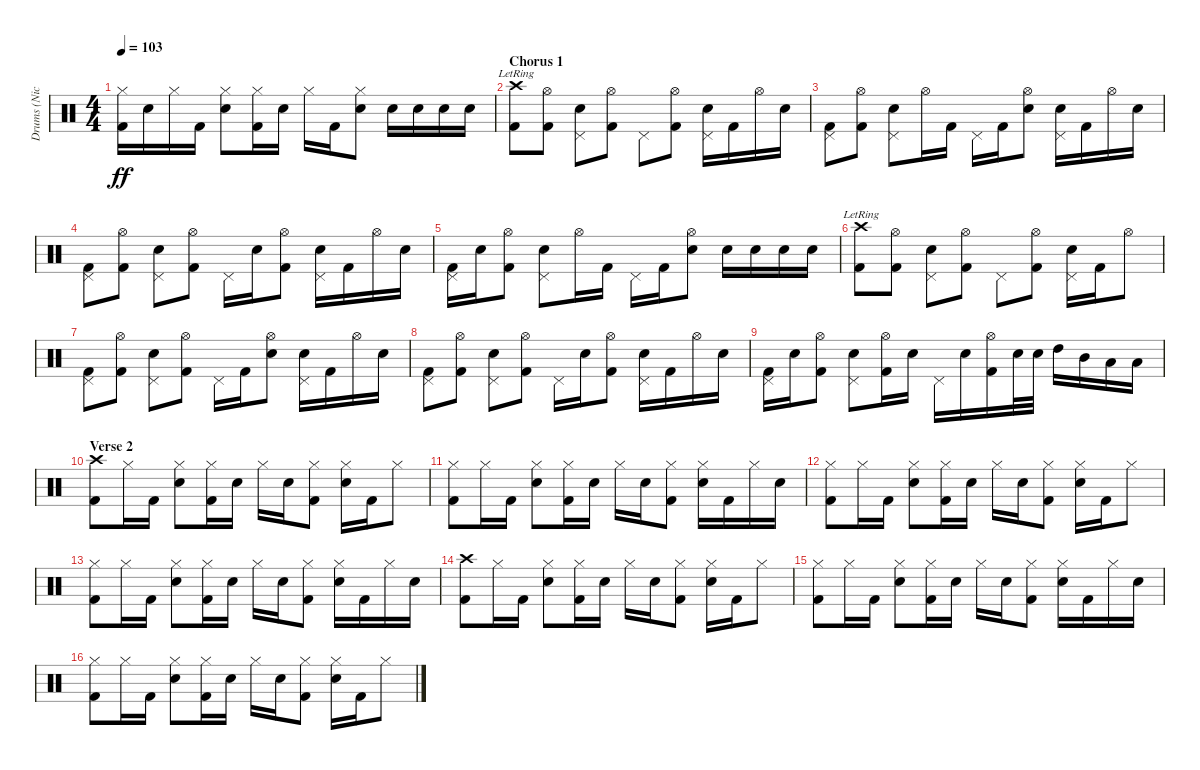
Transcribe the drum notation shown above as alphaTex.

\track ("Drums (Nick Oshiro)" "Drums (Nic") {instrument percussion}
\staff {score}
\articulation defaults
\ts (4 4)
\tempo 103
\clef neutral
\ks c
("Hi-Hat (closed)" "Kick (hit) 2").16{dy ff} "Snare (hit) 2".16 "Hi-Hat (closed)".16 "Kick (hit) 2".16 ("Hi-Hat (closed)" "Snare (hit) 2").8 ("Hi-Hat (closed)" "Kick (hit) 2").16 "Snare (hit) 2".16 "Hi-Hat (closed)".16 "Kick (hit) 2".16 ("Hi-Hat (closed)" "Snare (hit) 2").8 "Snare (hit) 2".16 "Snare (hit) 2".16 "Snare (hit) 2".16 "Snare (hit) 2".16 |
\section ("" "Chorus 1")
("Crash high (hit)"{lr} "Kick (hit) 2").8 ("Hi-Hat (open)" "Kick (hit) 2").8 ("Pedal Hi-Hat (hit)" "Snare (hit) 2").8 ("Hi-Hat (open)" "Kick (hit) 2").8 "Pedal Hi-Hat (hit)".8 ("Hi-Hat (open)" "Kick (hit) 2").8 ("Pedal Hi-Hat (hit)" "Snare (hit) 2").16 "Kick (hit) 2".16 "Hi-Hat (open)".16 "Snare (hit) 2".16 |
("Pedal Hi-Hat (hit)" "Kick (hit) 2").8 ("Hi-Hat (open)" "Kick (hit) 2").8 ("Pedal Hi-Hat (hit)" "Snare (hit) 2").8 "Hi-Hat (open)".16 "Kick (hit) 2".16 "Pedal Hi-Hat (hit)".16 "Kick (hit) 2".16 ("Hi-Hat (open)" "Snare (hit) 2").8 ("Pedal Hi-Hat (hit)" "Snare (hit) 2").16 "Kick (hit) 2".16 "Hi-Hat (open)".16 "Snare (hit) 2".16 |
("Pedal Hi-Hat (hit)" "Kick (hit) 2").8 ("Hi-Hat (open)" "Kick (hit) 2").8 ("Pedal Hi-Hat (hit)" "Snare (hit) 2").8 ("Hi-Hat (open)" "Kick (hit) 2").8 "Pedal Hi-Hat (hit)".16 "Snare (hit) 2".16 ("Hi-Hat (open)" "Kick (hit) 2").8 ("Pedal Hi-Hat (hit)" "Snare (hit) 2").16 "Kick (hit) 2".16 "Hi-Hat (open)".16 "Snare (hit) 2".16 |
("Pedal Hi-Hat (hit)" "Kick (hit) 2").16 "Snare (hit) 2".16 ("Hi-Hat (open)" "Kick (hit) 2").8 ("Pedal Hi-Hat (hit)" "Snare (hit) 2").8 "Hi-Hat (open)".16 "Kick (hit) 2".16 "Pedal Hi-Hat (hit)".16 "Kick (hit) 2".16 ("Hi-Hat (open)" "Snare (hit) 2").8 "Snare (hit) 2".16 "Snare (hit) 2".16 "Snare (hit) 2".16 "Snare (hit) 2".16 |
("Crash high (hit)"{lr} "Kick (hit) 2").8 ("Hi-Hat (open)" "Kick (hit) 2").8 ("Pedal Hi-Hat (hit)" "Snare (hit) 2").8 ("Hi-Hat (open)" "Kick (hit) 2").8 "Pedal Hi-Hat (hit)".8 ("Hi-Hat (open)" "Kick (hit) 2").8 ("Pedal Hi-Hat (hit)" "Snare (hit) 2").16 "Kick (hit) 2".16 "Hi-Hat (open)".8 |
("Pedal Hi-Hat (hit)" "Kick (hit) 2").8 ("Hi-Hat (open)" "Kick (hit) 2").8 ("Pedal Hi-Hat (hit)" "Snare (hit) 2").8 ("Hi-Hat (open)" "Kick (hit) 2").8 "Pedal Hi-Hat (hit)".16 "Kick (hit) 2".16 ("Hi-Hat (open)" "Snare (hit) 2").8 ("Pedal Hi-Hat (hit)" "Snare (hit) 2").16 "Kick (hit) 2".16 "Hi-Hat (open)".16 "Snare (hit) 2".16 |
("Pedal Hi-Hat (hit)" "Kick (hit) 2").8 ("Hi-Hat (open)" "Kick (hit) 2").8 ("Pedal Hi-Hat (hit)" "Snare (hit) 2").8 ("Hi-Hat (open)" "Kick (hit) 2").8 "Pedal Hi-Hat (hit)".16 "Snare (hit) 2".16 ("Hi-Hat (open)" "Kick (hit) 2").8 ("Pedal Hi-Hat (hit)" "Snare (hit) 2").16 "Kick (hit) 2".16 "Hi-Hat (open)".16 "Snare (hit) 2".16 |
("Pedal Hi-Hat (hit)" "Kick (hit) 2").16 "Snare (hit) 2".16 ("Hi-Hat (open)" "Kick (hit) 2").8 ("Pedal Hi-Hat (hit)" "Snare (hit) 2").8 ("Hi-Hat (open)" "Kick (hit) 2").16 "Snare (hit) 2".16 "Pedal Hi-Hat (hit)".16 "Snare (hit) 2".16 ("Hi-Hat (open)" "Kick (hit) 2").16 "Snare (hit) 2".32 "Snare (hit) 2".32 "High Tom (hit)".16 "Mid Tom (hit)".16 "Low Tom (hit)".16 "Low Tom (hit)".16 |
\section ("" "Verse 2")
("Crash high (hit)" "Kick (hit) 2").8 "Hi-Hat (closed)".16 "Kick (hit) 2".16 ("Hi-Hat (closed)" "Snare (hit) 2").8 ("Hi-Hat (closed)" "Kick (hit) 2").16 "Snare (hit) 2".16 "Hi-Hat (closed)".16 "Snare (hit) 2".16 ("Hi-Hat (closed)" "Kick (hit) 2").8 ("Hi-Hat (closed)" "Snare (hit) 2").16 "Kick (hit) 2".16 "Hi-Hat (closed)".8 |
("Hi-Hat (closed)" "Kick (hit) 2").8 "Hi-Hat (closed)".16 "Kick (hit) 2".16 ("Hi-Hat (closed)" "Snare (hit) 2").8 ("Hi-Hat (closed)" "Kick (hit) 2").16 "Snare (hit) 2".16 "Hi-Hat (closed)".16 "Snare (hit) 2".16 ("Hi-Hat (closed)" "Kick (hit) 2").8 ("Hi-Hat (closed)" "Snare (hit) 2").16 "Kick (hit) 2".16 "Hi-Hat (closed)".16 "Snare (hit) 2".16 |
("Hi-Hat (closed)" "Kick (hit) 2").8 "Hi-Hat (closed)".16 "Kick (hit) 2".16 ("Hi-Hat (closed)" "Snare (hit) 2").8 ("Hi-Hat (closed)" "Kick (hit) 2").16 "Snare (hit) 2".16 "Hi-Hat (closed)".16 "Snare (hit) 2".16 ("Hi-Hat (closed)" "Kick (hit) 2").8 ("Hi-Hat (closed)" "Snare (hit) 2").16 "Kick (hit) 2".16 "Hi-Hat (closed)".8 |
("Hi-Hat (closed)" "Kick (hit) 2").8 "Hi-Hat (closed)".16 "Kick (hit) 2".16 ("Hi-Hat (closed)" "Snare (hit) 2").8 ("Hi-Hat (closed)" "Kick (hit) 2").16 "Snare (hit) 2".16 "Hi-Hat (closed)".16 "Snare (hit) 2".16 ("Hi-Hat (closed)" "Kick (hit) 2").8 ("Hi-Hat (closed)" "Snare (hit) 2").16 "Kick (hit) 2".16 "Hi-Hat (closed)".16 "Snare (hit) 2".16 |
("Crash high (hit)" "Kick (hit) 2").8 "Hi-Hat (closed)".16 "Kick (hit) 2".16 ("Hi-Hat (closed)" "Snare (hit) 2").8 ("Hi-Hat (closed)" "Kick (hit) 2").16 "Snare (hit) 2".16 "Hi-Hat (closed)".16 "Snare (hit) 2".16 ("Hi-Hat (closed)" "Kick (hit) 2").8 ("Hi-Hat (closed)" "Snare (hit) 2").16 "Kick (hit) 2".16 "Hi-Hat (closed)".8 |
("Hi-Hat (closed)" "Kick (hit) 2").8 "Hi-Hat (closed)".16 "Kick (hit) 2".16 ("Hi-Hat (closed)" "Snare (hit) 2").8 ("Hi-Hat (closed)" "Kick (hit) 2").16 "Snare (hit) 2".16 "Hi-Hat (closed)".16 "Snare (hit) 2".16 ("Hi-Hat (closed)" "Kick (hit) 2").8 ("Hi-Hat (closed)" "Snare (hit) 2").16 "Kick (hit) 2".16 "Hi-Hat (closed)".16 "Snare (hit) 2".16 |
("Hi-Hat (closed)" "Kick (hit) 2").8 "Hi-Hat (closed)".16 "Kick (hit) 2".16 ("Hi-Hat (closed)" "Snare (hit) 2").8 ("Hi-Hat (closed)" "Kick (hit) 2").16 "Snare (hit) 2".16 "Hi-Hat (closed)".16 "Snare (hit) 2".16 ("Hi-Hat (closed)" "Kick (hit) 2").8 ("Hi-Hat (closed)" "Snare (hit) 2").16 "Kick (hit) 2".16 "Hi-Hat (closed)".8
